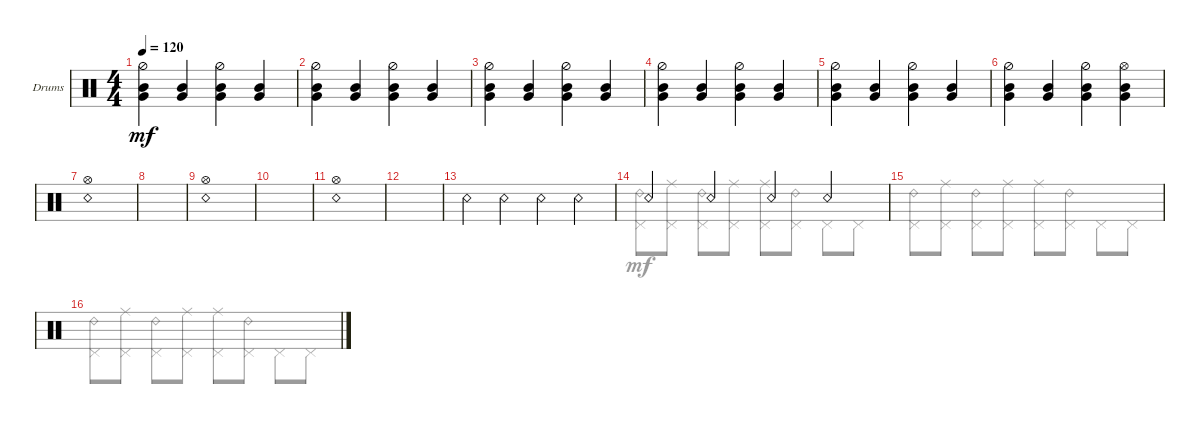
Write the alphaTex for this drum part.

\defaultSystemsLayout 4
\bracketExtendMode groupsimilarinstruments
\firstSystemTrackNameOrientation horizontal
\otherSystemsTrackNameOrientation horizontal
\track ("Drumkit" "Drums") {instrument percussion}
\staff {score}
\articulation defaults
\voice
\ts (4 4)
\tempo 120
\clef neutral
\ks c
("Mid Tom (hit)" "Very Low Tom (hit)" "Hi-Hat (half)").4{dy mf} ("Mid Tom (hit)" "Very Low Tom (hit)").4 ("Mid Tom (hit)" "Very Low Tom (hit)" "Hi-Hat (half)").4 ("Mid Tom (hit)" "Very Low Tom (hit)").4 |
("Mid Tom (hit)" "Very Low Tom (hit)" "Hi-Hat (half)").4 ("Mid Tom (hit)" "Very Low Tom (hit)").4 ("Mid Tom (hit)" "Very Low Tom (hit)" "Hi-Hat (half)").4 ("Mid Tom (hit)" "Very Low Tom (hit)").4 |
("Mid Tom (hit)" "Very Low Tom (hit)" "Hi-Hat (half)").4 ("Mid Tom (hit)" "Very Low Tom (hit)").4 ("Mid Tom (hit)" "Very Low Tom (hit)" "Hi-Hat (half)").4 ("Mid Tom (hit)" "Very Low Tom (hit)").4 |
("Mid Tom (hit)" "Very Low Tom (hit)" "Hi-Hat (half)").4 ("Mid Tom (hit)" "Very Low Tom (hit)").4 ("Mid Tom (hit)" "Very Low Tom (hit)" "Hi-Hat (half)").4 ("Mid Tom (hit)" "Very Low Tom (hit)").4 |
("Mid Tom (hit)" "Very Low Tom (hit)" "Hi-Hat (half)").4 ("Mid Tom (hit)" "Very Low Tom (hit)").4 ("Mid Tom (hit)" "Very Low Tom (hit)" "Hi-Hat (half)").4 ("Mid Tom (hit)" "Very Low Tom (hit)").4 |
("Mid Tom (hit)" "Very Low Tom (hit)" "Hi-Hat (half)").4 ("Mid Tom (hit)" "Very Low Tom (hit)").4 ("Mid Tom (hit)" "Very Low Tom (hit)" "Hi-Hat (half)").4 ("Mid Tom (hit)" "Very Low Tom (hit)" "Hi-Hat (open)").4 |
("Hi-Hat (open)" "Snare (rim shot)").1 |
|
("Hi-Hat (open)" "Snare (rim shot)").1 |
|
("Hi-Hat (open)" "Snare (rim shot)").1 |
|
"Snare (rim shot)".4 "Snare (rim shot)".4 "Snare (rim shot)".4 "Snare (rim shot)".4 |
"Snare (rim shot)".4 "Snare (rim shot)".4 "Snare (rim shot)".4 "Snare (rim shot)".4 |
|
\voice
\clef neutral
\ottava regular
\simile none
\ks c
|
|
|
|
|
|
|
|
|
|
|
|
|
("Ride (bell) 2" "Pedal Hi-Hat (hit)").8 ("Ride (middle)" "Pedal Hi-Hat (hit)").8 ("Ride (bell) 2" "Pedal Hi-Hat (hit)").8 ("Ride (middle)" "Pedal Hi-Hat (hit)").8 ("Ride (middle)" "Pedal Hi-Hat (hit)").8 ("Ride (bell) 2" "Pedal Hi-Hat (hit)").8 "Pedal Hi-Hat (hit)".8 "Pedal Hi-Hat (hit)".8 |
("Ride (bell) 2" "Pedal Hi-Hat (hit)").8 ("Ride (middle)" "Pedal Hi-Hat (hit)").8 ("Ride (bell) 2" "Pedal Hi-Hat (hit)").8 ("Ride (middle)" "Pedal Hi-Hat (hit)").8 ("Ride (middle)" "Pedal Hi-Hat (hit)").8 ("Ride (bell) 2" "Pedal Hi-Hat (hit)").8 "Pedal Hi-Hat (hit)".8 "Pedal Hi-Hat (hit)".8 |
("Ride (bell) 2" "Pedal Hi-Hat (hit)").8 ("Ride (middle)" "Pedal Hi-Hat (hit)").8 ("Ride (bell) 2" "Pedal Hi-Hat (hit)").8 ("Ride (middle)" "Pedal Hi-Hat (hit)").8 ("Ride (middle)" "Pedal Hi-Hat (hit)").8 ("Ride (bell) 2" "Pedal Hi-Hat (hit)").8 "Pedal Hi-Hat (hit)".8 "Pedal Hi-Hat (hit)".8
